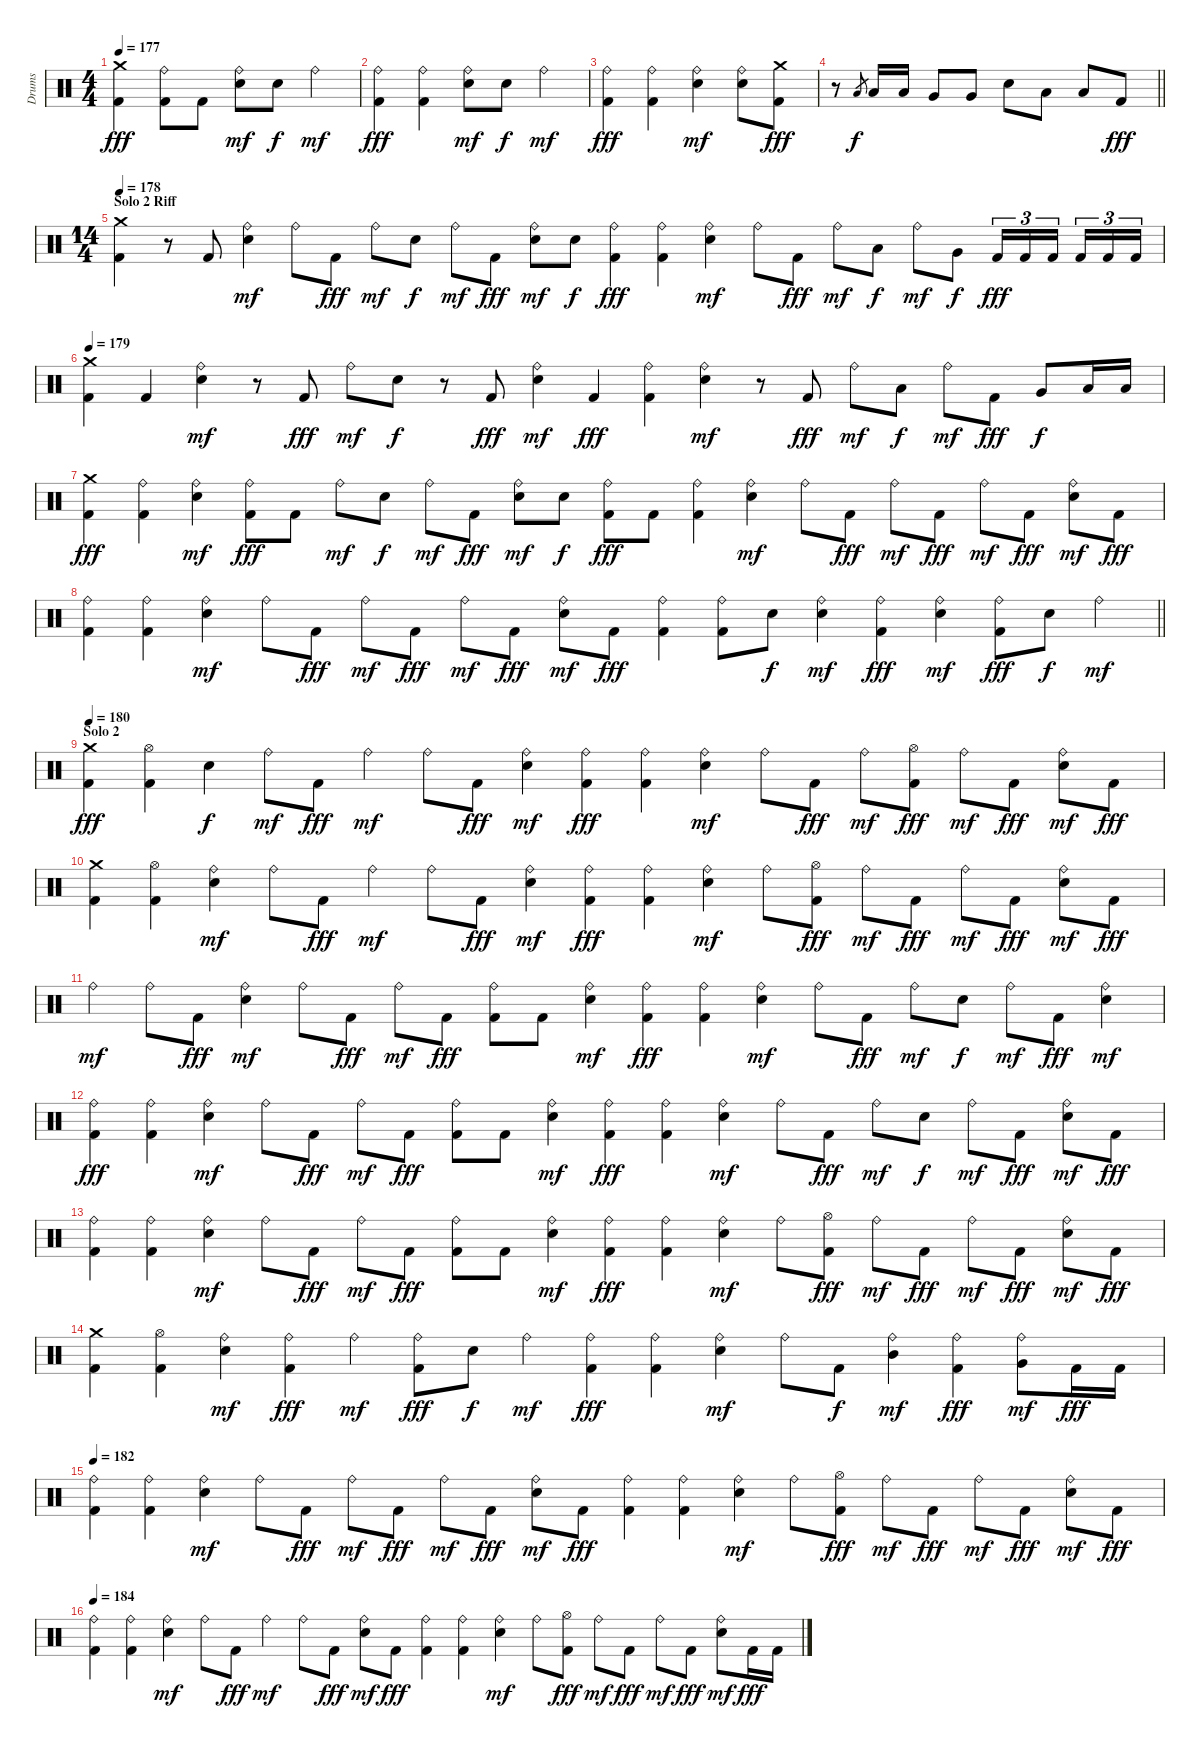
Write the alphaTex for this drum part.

\track ("Drums" "Drums") {instrument percussion}
\staff {score}
\articulation defaults
\ts (4 4)
\tempo 177
\clef neutral
\ks c
("Crash medium (hit)" "Kick (hit) 2").4{dy fff} ("Ride (bell)" "Kick (hit) 2").8 "Kick (hit) 2".8 ("Ride (bell)" "Electric Snare (hit)").8{dy mf} "Electric Snare (hit)".8{dy f} "Ride (bell)".4{dy mf} |
("Ride (bell)" "Kick (hit) 2").4{dy fff} ("Ride (bell)" "Kick (hit) 2").4 ("Ride (bell)" "Electric Snare (hit)").8{dy mf} "Electric Snare (hit)".8{dy f} "Ride (bell)".4{dy mf} |
("Ride (bell)" "Kick (hit) 2").4{dy fff} ("Ride (bell)" "Kick (hit) 2").4 ("Ride (bell)" "Electric Snare (hit)").4{dy mf} ("Ride (bell)" "Electric Snare (hit)").8 ("Crash medium (hit)" "Kick (hit) 2").8{dy fff} |
\barLineRight lightlight
r.8 "Low Tom (hit)".8{gr dy f} "Low Tom (hit)".16 "Low Tom (hit)".16 "Very Low Tom (hit)".8 "Very Low Tom (hit)".8 "Electric Snare (hit)".8 "Low Floor Tom (hit)".8 "Low Floor Tom (hit)".8 "Kick (hit) 2".8{dy fff} |
\ts (14 4)
\section ("" "Solo 2 Riff")
\tempo 178
("Crash medium (hit)" "Kick (hit) 2").4 r.8 "Kick (hit) 2".8 ("Ride (bell)" "Electric Snare (hit)").4{dy mf} "Ride (bell)".8 "Kick (hit) 2".8{dy fff} "Ride (bell)".8{dy mf} "Electric Snare (hit)".8{dy f} "Ride (bell)".8{dy mf} "Kick (hit) 2".8{dy fff} ("Ride (bell)" "Electric Snare (hit)").8{dy mf} "Electric Snare (hit)".8{dy f} ("Ride (bell)" "Kick (hit) 2").4{dy fff} ("Ride (bell)" "Kick (hit) 2").4 ("Ride (bell)" "Electric Snare (hit)").4{dy mf} "Ride (bell)".8 "Kick (hit) 2".8{dy fff} "Ride (bell)".8{dy mf} "Low Tom (hit)".8{dy f} "Ride (bell)".8{dy mf} "Very Low Tom (hit)".8{dy f} "Kick (hit) 2".16{tu (3 2) dy fff} "Kick (hit) 2".16{tu (3 2)} "Kick (hit) 2".16{tu (3 2) beam splitsecondary} "Kick (hit) 2".16{tu (3 2)} "Kick (hit) 2".16{tu (3 2)} "Kick (hit) 2".16{tu (3 2)} |
\tempo 179
("Crash medium (hit)" "Kick (hit) 2").4 "Kick (hit) 2".4 ("Ride (bell)" "Electric Snare (hit)").4{dy mf} r.8 "Kick (hit) 2".8{dy fff} "Ride (bell)".8{dy mf} "Electric Snare (hit)".8{dy f} r.8 "Kick (hit) 2".8{dy fff} ("Ride (bell)" "Electric Snare (hit)").4{dy mf} "Kick (hit) 2".4{dy fff} ("Ride (bell)" "Kick (hit) 2").4 ("Ride (bell)" "Electric Snare (hit)").4{dy mf} r.8 "Kick (hit) 2".8{dy fff} "Ride (bell)".8{dy mf} "Low Tom (hit)".8{dy f} "Ride (bell)".8{dy mf} "Kick (hit) 2".8{dy fff} "Very Low Tom (hit)".8{dy f} "Low Floor Tom (hit)".16 "Low Floor Tom (hit)".16 |
("Crash medium (hit)" "Kick (hit) 2").4{dy fff} ("Ride (bell)" "Kick (hit) 2").4 ("Ride (bell)" "Electric Snare (hit)").4{dy mf} ("Ride (bell)" "Kick (hit) 2").8{dy fff} "Kick (hit) 2".8 "Ride (bell)".8{dy mf} "Electric Snare (hit)".8{dy f} "Ride (bell)".8{dy mf} "Kick (hit) 2".8{dy fff} ("Ride (bell)" "Electric Snare (hit)").8{dy mf} "Electric Snare (hit)".8{dy f} ("Ride (bell)" "Kick (hit) 2").8{dy fff} "Kick (hit) 2".8 ("Ride (bell)" "Kick (hit) 2").4 ("Ride (bell)" "Electric Snare (hit)").4{dy mf} "Ride (bell)".8 "Kick (hit) 2".8{dy fff} "Ride (bell)".8{dy mf} "Kick (hit) 2".8{dy fff} "Ride (bell)".8{dy mf} "Kick (hit) 2".8{dy fff} ("Ride (bell)" "Electric Snare (hit)").8{dy mf} "Kick (hit) 2".8{dy fff} |
\barLineRight lightlight
("Ride (bell)" "Kick (hit) 2").4 ("Ride (bell)" "Kick (hit) 2").4 ("Ride (bell)" "Electric Snare (hit)").4{dy mf} "Ride (bell)".8 "Kick (hit) 2".8{dy fff} "Ride (bell)".8{dy mf} "Kick (hit) 2".8{dy fff} "Ride (bell)".8{dy mf} "Kick (hit) 2".8{dy fff} ("Ride (bell)" "Electric Snare (hit)").8{dy mf} "Kick (hit) 2".8{dy fff} ("Ride (bell)" "Kick (hit) 2").4 ("Ride (bell)" "Kick (hit) 2").8 "Electric Snare (hit)".8{dy f} ("Ride (bell)" "Electric Snare (hit)").4{dy mf} ("Ride (bell)" "Kick (hit) 2").4{dy fff} ("Ride (bell)" "Electric Snare (hit)").4{dy mf} ("Ride (bell)" "Kick (hit) 2").8{dy fff} "Electric Snare (hit)".8{dy f} "Ride (bell)".4{dy mf} |
\section ("" "Solo 2")
\tempo 180
("Crash medium (hit)" "Kick (hit) 2").4{dy fff} ("Hi-Hat (open)" "Kick (hit) 2").4 "Electric Snare (hit)".4{dy f} "Ride (bell)".8{dy mf} "Kick (hit) 2".8{dy fff} "Ride (bell)".4{dy mf} "Ride (bell)".8 "Kick (hit) 2".8{dy fff} ("Ride (bell)" "Electric Snare (hit)").4{dy mf} ("Ride (bell)" "Kick (hit) 2").4{dy fff} ("Ride (bell)" "Kick (hit) 2").4 ("Ride (bell)" "Electric Snare (hit)").4{dy mf} "Ride (bell)".8 "Kick (hit) 2".8{dy fff} "Ride (bell)".8{dy mf} ("Hi-Hat (open)" "Kick (hit) 2").8{dy fff} "Ride (bell)".8{dy mf} "Kick (hit) 2".8{dy fff} ("Ride (bell)" "Electric Snare (hit)").8{dy mf} "Kick (hit) 2".8{dy fff} |
("Crash medium (hit)" "Kick (hit) 2").4 ("Hi-Hat (open)" "Kick (hit) 2").4 ("Ride (bell)" "Electric Snare (hit)").4{dy mf} "Ride (bell)".8 "Kick (hit) 2".8{dy fff} "Ride (bell)".4{dy mf} "Ride (bell)".8 "Kick (hit) 2".8{dy fff} ("Ride (bell)" "Electric Snare (hit)").4{dy mf} ("Ride (bell)" "Kick (hit) 2").4{dy fff} ("Ride (bell)" "Kick (hit) 2").4 ("Ride (bell)" "Electric Snare (hit)").4{dy mf} "Ride (bell)".8 ("Hi-Hat (open)" "Kick (hit) 2").8{dy fff} "Ride (bell)".8{dy mf} "Kick (hit) 2".8{dy fff} "Ride (bell)".8{dy mf} "Kick (hit) 2".8{dy fff} ("Ride (bell)" "Electric Snare (hit)").8{dy mf} "Kick (hit) 2".8{dy fff} |
"Ride (bell)".4{dy mf} "Ride (bell)".8 "Kick (hit) 2".8{dy fff} ("Ride (bell)" "Electric Snare (hit)").4{dy mf} "Ride (bell)".8 "Kick (hit) 2".8{dy fff} "Ride (bell)".8{dy mf} "Kick (hit) 2".8{dy fff} ("Ride (bell)" "Kick (hit) 2").8 "Kick (hit) 2".8 ("Ride (bell)" "Electric Snare (hit)").4{dy mf} ("Ride (bell)" "Kick (hit) 2").4{dy fff} ("Ride (bell)" "Kick (hit) 2").4 ("Ride (bell)" "Electric Snare (hit)").4{dy mf} "Ride (bell)".8 "Kick (hit) 2".8{dy fff} "Ride (bell)".8{dy mf} "Electric Snare (hit)".8{dy f} "Ride (bell)".8{dy mf} "Kick (hit) 2".8{dy fff} ("Ride (bell)" "Electric Snare (hit)").4{dy mf} |
("Ride (bell)" "Kick (hit) 2").4{dy fff} ("Ride (bell)" "Kick (hit) 2").4 ("Ride (bell)" "Electric Snare (hit)").4{dy mf} "Ride (bell)".8 "Kick (hit) 2".8{dy fff} "Ride (bell)".8{dy mf} "Kick (hit) 2".8{dy fff} ("Ride (bell)" "Kick (hit) 2").8 "Kick (hit) 2".8 ("Ride (bell)" "Electric Snare (hit)").4{dy mf} ("Ride (bell)" "Kick (hit) 2").4{dy fff} ("Ride (bell)" "Kick (hit) 2").4 ("Ride (bell)" "Electric Snare (hit)").4{dy mf} "Ride (bell)".8 "Kick (hit) 2".8{dy fff} "Ride (bell)".8{dy mf} "Electric Snare (hit)".8{dy f} "Ride (bell)".8{dy mf} "Kick (hit) 2".8{dy fff} ("Ride (bell)" "Electric Snare (hit)").8{dy mf} "Kick (hit) 2".8{dy fff} |
("Ride (bell)" "Kick (hit) 2").4 ("Ride (bell)" "Kick (hit) 2").4 ("Ride (bell)" "Electric Snare (hit)").4{dy mf} "Ride (bell)".8 "Kick (hit) 2".8{dy fff} "Ride (bell)".8{dy mf} "Kick (hit) 2".8{dy fff} ("Ride (bell)" "Kick (hit) 2").8 "Kick (hit) 2".8 ("Ride (bell)" "Electric Snare (hit)").4{dy mf} ("Ride (bell)" "Kick (hit) 2").4{dy fff} ("Ride (bell)" "Kick (hit) 2").4 ("Ride (bell)" "Electric Snare (hit)").4{dy mf} "Ride (bell)".8 ("Hi-Hat (open)" "Kick (hit) 2").8{dy fff} "Ride (bell)".8{dy mf} "Kick (hit) 2".8{dy fff} "Ride (bell)".8{dy mf} "Kick (hit) 2".8{dy fff} ("Ride (bell)" "Electric Snare (hit)").8{dy mf} "Kick (hit) 2".8{dy fff} |
("Crash medium (hit)" "Kick (hit) 2").4 ("Hi-Hat (open)" "Kick (hit) 2").4 ("Ride (bell)" "Electric Snare (hit)").4{dy mf} ("Ride (bell)" "Kick (hit) 2").4{dy fff} "Ride (bell)".4{dy mf} ("Ride (bell)" "Kick (hit) 2").8{dy fff} "Electric Snare (hit)".8{dy f} "Ride (bell)".4{dy mf} ("Ride (bell)" "Kick (hit) 2").4{dy fff} ("Ride (bell)" "Kick (hit) 2").4 ("Ride (bell)" "Electric Snare (hit)").4{dy mf} "Ride (bell)".8 "Kick (hit) 2".8{dy f} ("Ride (bell)" "Mid Tom (hit)").4{dy mf} ("Ride (bell)" "Kick (hit) 2").4{dy fff} ("Ride (bell)" "Very Low Tom (hit)").8{dy mf} "Kick (hit) 2".16{dy fff} "Kick (hit) 2".16 |
\tempo 182
("Ride (bell)" "Kick (hit) 2").4 ("Ride (bell)" "Kick (hit) 2").4 ("Ride (bell)" "Electric Snare (hit)").4{dy mf} "Ride (bell)".8 "Kick (hit) 2".8{dy fff} "Ride (bell)".8{dy mf} "Kick (hit) 2".8{dy fff} "Ride (bell)".8{dy mf} "Kick (hit) 2".8{dy fff} ("Ride (bell)" "Electric Snare (hit)").8{dy mf} "Kick (hit) 2".8{dy fff} ("Ride (bell)" "Kick (hit) 2").4 ("Ride (bell)" "Kick (hit) 2").4 ("Ride (bell)" "Electric Snare (hit)").4{dy mf} "Ride (bell)".8 ("Hi-Hat (open)" "Kick (hit) 2").8{dy fff} "Ride (bell)".8{dy mf} "Kick (hit) 2".8{dy fff} "Ride (bell)".8{dy mf} "Kick (hit) 2".8{dy fff} ("Ride (bell)" "Electric Snare (hit)").8{dy mf} "Kick (hit) 2".8{dy fff} |
\tempo 184
("Ride (bell)" "Kick (hit) 2").4 ("Ride (bell)" "Kick (hit) 2").4 ("Ride (bell)" "Electric Snare (hit)").4{dy mf} "Ride (bell)".8 "Kick (hit) 2".8{dy fff} "Ride (bell)".4{dy mf} "Ride (bell)".8 "Kick (hit) 2".8{dy fff} ("Ride (bell)" "Electric Snare (hit)").8{dy mf} "Kick (hit) 2".8{dy fff} ("Ride (bell)" "Kick (hit) 2").4 ("Ride (bell)" "Kick (hit) 2").4 ("Ride (bell)" "Electric Snare (hit)").4{dy mf} "Ride (bell)".8 ("Hi-Hat (open)" "Kick (hit) 2").8{dy fff} "Ride (bell)".8{dy mf} "Kick (hit) 2".8{dy fff} "Ride (bell)".8{dy mf} "Kick (hit) 2".8{dy fff} ("Ride (bell)" "Electric Snare (hit)").8{dy mf} "Kick (hit) 2".16{dy fff} "Kick (hit) 2".16
